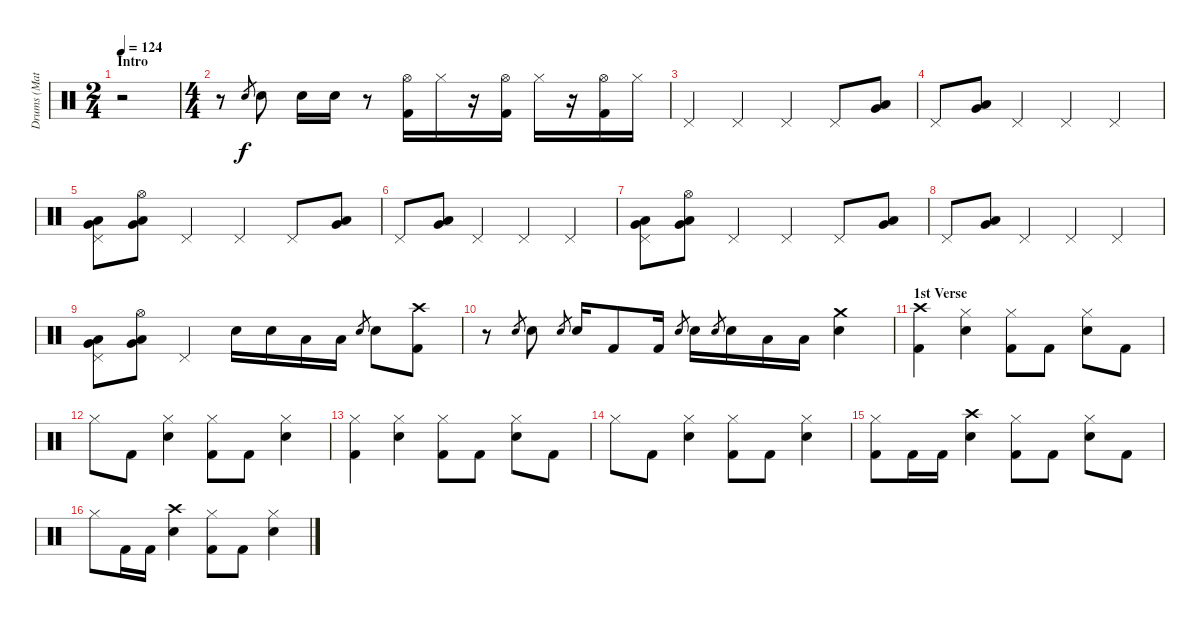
\track ("Drums (Matt)" "Drums (Mat") {instrument percussion}
\staff {score}
\articulation defaults
\ts (2 4)
\section ("" "Intro")
\tempo 124
\clef neutral
\ks c
r.2{dy f} |
\ts (4 4)
r.8 "Snare (hit) 2".8{gr} "Snare (hit) 2".8 "Snare (hit) 2".16 "Snare (hit) 2".16 r.8 ("Hi-Hat (open)" "Kick (hit) 2").16 "Hi-Hat (closed)".16 r.16 ("Hi-Hat (open)" "Kick (hit) 2").16 "Hi-Hat (closed)".16 r.16 ("Hi-Hat (open)" "Kick (hit) 2").16 "Hi-Hat (closed)".16 |
"Pedal Hi-Hat (hit)".4 "Pedal Hi-Hat (hit)".4 "Pedal Hi-Hat (hit)".4 "Pedal Hi-Hat (hit)".8 ("Low Tom (hit)" "Very Low Tom (hit)").8 |
"Pedal Hi-Hat (hit)".8 ("Low Tom (hit)" "Very Low Tom (hit)").8 "Pedal Hi-Hat (hit)".4 "Pedal Hi-Hat (hit)".4 "Pedal Hi-Hat (hit)".4 |
("Low Tom (hit)" "Very Low Tom (hit)" "Pedal Hi-Hat (hit)").8 ("Hi-Hat (open)" "Low Tom (hit)" "Very Low Tom (hit)").8 "Pedal Hi-Hat (hit)".4 "Pedal Hi-Hat (hit)".4 "Pedal Hi-Hat (hit)".8 ("Low Tom (hit)" "Very Low Tom (hit)").8 |
"Pedal Hi-Hat (hit)".8 ("Low Tom (hit)" "Very Low Tom (hit)").8 "Pedal Hi-Hat (hit)".4 "Pedal Hi-Hat (hit)".4 "Pedal Hi-Hat (hit)".4 |
("Low Tom (hit)" "Very Low Tom (hit)" "Pedal Hi-Hat (hit)").8 ("Hi-Hat (open)" "Low Tom (hit)" "Very Low Tom (hit)").8 "Pedal Hi-Hat (hit)".4 "Pedal Hi-Hat (hit)".4 "Pedal Hi-Hat (hit)".8 ("Low Tom (hit)" "Very Low Tom (hit)").8 |
"Pedal Hi-Hat (hit)".8 ("Low Tom (hit)" "Very Low Tom (hit)").8 "Pedal Hi-Hat (hit)".4 "Pedal Hi-Hat (hit)".4 "Pedal Hi-Hat (hit)".4 |
("Low Tom (hit)" "Very Low Tom (hit)" "Pedal Hi-Hat (hit)").8 ("Hi-Hat (open)" "Low Tom (hit)" "Very Low Tom (hit)").8 "Pedal Hi-Hat (hit)".4 "Snare (hit) 2".16 "Snare (hit) 2".16 "Low Tom (hit)".16 "Low Tom (hit)".16 "Snare (hit) 2".8{gr} "Snare (hit) 2".8 ("Crash high (hit)" "Kick (hit) 2").8 |
r.8 "Snare (hit) 2".8{gr} "Snare (hit) 2".8 "Snare (hit) 2".8{gr} "Snare (hit) 2".16 "Kick (hit) 2".8 "Kick (hit) 2".16 "Snare (hit) 2".8{gr} "Snare (hit) 2".16 "Snare (hit) 2".8{gr} "Snare (hit) 2".16 "Low Tom (hit)".16 "Low Tom (hit)".16 ("Crash medium (hit)" "Snare (hit) 2").4 |
\section ("" "1st Verse")
("Crash high (hit)" "Kick (hit) 2").4 ("Hi-Hat (closed)" "Snare (hit) 2").4 ("Hi-Hat (closed)" "Kick (hit) 2").8 "Kick (hit) 2".8 ("Hi-Hat (closed)" "Snare (hit) 2").8 "Kick (hit) 2".8 |
"Hi-Hat (closed)".8 "Kick (hit) 2".8 ("Hi-Hat (closed)" "Snare (hit) 2").4 ("Hi-Hat (closed)" "Kick (hit) 2").8 "Kick (hit) 2".8 ("Hi-Hat (closed)" "Snare (hit) 2").4 |
("Hi-Hat (closed)" "Kick (hit) 2").4 ("Hi-Hat (closed)" "Snare (hit) 2").4 ("Hi-Hat (closed)" "Kick (hit) 2").8 "Kick (hit) 2".8 ("Hi-Hat (closed)" "Snare (hit) 2").8 "Kick (hit) 2".8 |
"Hi-Hat (closed)".8 "Kick (hit) 2".8 ("Hi-Hat (closed)" "Snare (hit) 2").4 ("Hi-Hat (closed)" "Kick (hit) 2").8 "Kick (hit) 2".8 ("Hi-Hat (closed)" "Snare (hit) 2").4 |
("Hi-Hat (closed)" "Kick (hit) 2").8 "Kick (hit) 2".16 "Kick (hit) 2".16 ("Crash high (hit)" "Snare (hit) 2").4 ("Hi-Hat (closed)" "Kick (hit) 2").8 "Kick (hit) 2".8 ("Hi-Hat (closed)" "Snare (hit) 2").8 "Kick (hit) 2".8 |
"Hi-Hat (closed)".8 "Kick (hit) 2".16 "Kick (hit) 2".16 ("Crash high (hit)" "Snare (hit) 2").4 ("Hi-Hat (closed)" "Kick (hit) 2").8 "Kick (hit) 2".8 ("Hi-Hat (closed)" "Snare (hit) 2").4
